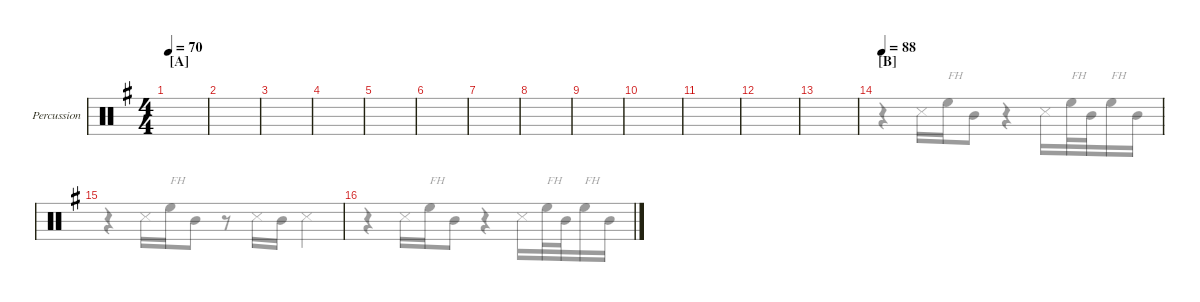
\defaultSystemsLayout 4
\hideDynamics
\bracketExtendMode groupsimilarinstruments
\firstSystemTrackNameMode fullname
\otherSystemsTrackNameMode fullname
\firstSystemTrackNameOrientation horizontal
\otherSystemsTrackNameOrientation horizontal
\track ("Percussion" "Perc.") {instrument percussion}
\staff {score}
\articulation defaults
\voice
\ts (4 4)
\section ("A" "")
\tempo 70
\clef neutral
\ks g
|
|
|
|
|
|
|
|
|
|
|
|
|
\section ("B" "")
\tempo 88
\tempo (88 0.0625 hide)
|
|
\voice
\clef neutral
\ks g
|
|
|
|
|
|
|
|
|
|
|
|
|
r.4 "Snare (side stick) 3".16 "High Floor Tom (hit)".16{txt "FH"} "Mid Tom (hit)".8 r.4 "Snare (side stick) 3".16 "High Floor Tom (hit)".32{txt "FH"} "Mid Tom (hit)".32 "High Floor Tom (hit)".16{txt "FH"} "Mid Tom (hit)".16 |
r.4 "Snare (side stick) 3".16 "High Floor Tom (hit)".16{txt "FH"} "Mid Tom (hit)".8 r.8 "Snare (side stick) 3".16 "Mid Tom (hit)".16 "Snare (side stick) 3".4 |
r.4 "Snare (side stick) 3".16 "High Floor Tom (hit)".16{txt "FH"} "Mid Tom (hit)".8 r.4 "Snare (side stick) 3".16 "High Floor Tom (hit)".32{txt "FH"} "Mid Tom (hit)".32 "High Floor Tom (hit)".16{txt "FH"} "Mid Tom (hit)".16
